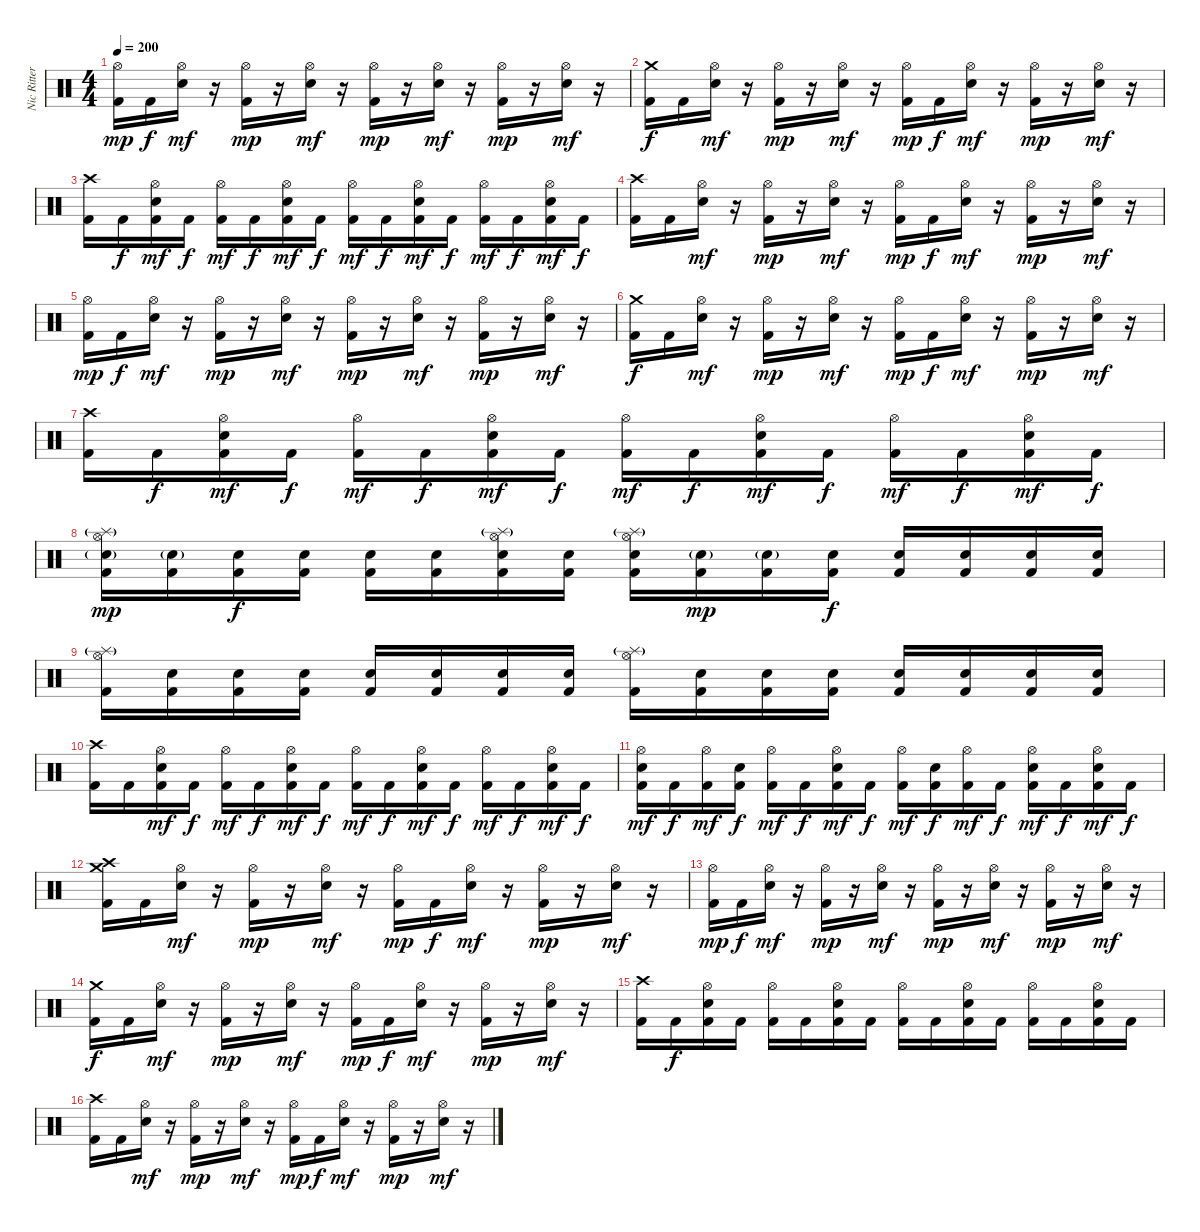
\track ("Nic Ritter" "Nic Ritter") {instrument percussion}
\staff {score}
\articulation defaults
\ts (4 4)
\tempo 200
\clef neutral
\ks c
("Hi-Hat (open)" "Kick (hit) 2").16{dy mp} "Kick (hit) 2".16{dy f} ("Hi-Hat (open)" "Electric Snare (hit)").16{dy mf} r.16 ("Hi-Hat (open)" "Kick (hit) 2").16{dy mp} r.16 ("Hi-Hat (open)" "Electric Snare (hit)").16{dy mf} r.16 ("Hi-Hat (open)" "Kick (hit) 2").16{dy mp} r.16 ("Hi-Hat (open)" "Electric Snare (hit)").16{dy mf} r.16 ("Hi-Hat (open)" "Kick (hit) 2").16{dy mp} r.16 ("Hi-Hat (open)" "Electric Snare (hit)").16{dy mf} r.16 |
("Crash medium (hit)" "Kick (hit) 2").16{dy f} "Kick (hit) 2".16 ("Hi-Hat (open)" "Electric Snare (hit)").16{dy mf} r.16 ("Hi-Hat (open)" "Kick (hit) 2").16{dy mp} r.16 ("Hi-Hat (open)" "Electric Snare (hit)").16{dy mf} r.16 ("Hi-Hat (open)" "Kick (hit) 2").16{dy mp} "Kick (hit) 2".16{dy f} ("Hi-Hat (open)" "Electric Snare (hit)").16{dy mf} r.16 ("Hi-Hat (open)" "Kick (hit) 2").16{dy mp} r.16 ("Hi-Hat (open)" "Electric Snare (hit)").16{dy mf} r.16 |
("Crash high (hit)" "Kick (hit) 2").16 "Kick (hit) 2".16{dy f} ("Hi-Hat (open)" "Electric Snare (hit)" "Kick (hit) 2").16{dy mf} "Kick (hit) 2".16{dy f} ("Hi-Hat (open)" "Kick (hit) 2").16{dy mf} "Kick (hit) 2".16{dy f} ("Hi-Hat (open)" "Electric Snare (hit)" "Kick (hit) 2").16{dy mf} "Kick (hit) 2".16{dy f} ("Hi-Hat (open)" "Kick (hit) 2").16{dy mf} "Kick (hit) 2".16{dy f} ("Hi-Hat (open)" "Electric Snare (hit)" "Kick (hit) 2").16{dy mf} "Kick (hit) 2".16{dy f} ("Hi-Hat (open)" "Kick (hit) 2").16{dy mf} "Kick (hit) 2".16{dy f} ("Hi-Hat (open)" "Electric Snare (hit)" "Kick (hit) 2").16{dy mf} "Kick (hit) 2".16{dy f} |
("Crash high (hit)" "Kick (hit) 2").16 "Kick (hit) 2".16 ("Hi-Hat (open)" "Electric Snare (hit)").16{dy mf} r.16 ("Hi-Hat (open)" "Kick (hit) 2").16{dy mp} r.16 ("Hi-Hat (open)" "Electric Snare (hit)").16{dy mf} r.16 ("Hi-Hat (open)" "Kick (hit) 2").16{dy mp} "Kick (hit) 2".16{dy f} ("Hi-Hat (open)" "Electric Snare (hit)").16{dy mf} r.16 ("Hi-Hat (open)" "Kick (hit) 2").16{dy mp} r.16 ("Hi-Hat (open)" "Electric Snare (hit)").16{dy mf} r.16 |
("Hi-Hat (open)" "Kick (hit) 2").16{dy mp} "Kick (hit) 2".16{dy f} ("Hi-Hat (open)" "Electric Snare (hit)").16{dy mf} r.16 ("Hi-Hat (open)" "Kick (hit) 2").16{dy mp} r.16 ("Hi-Hat (open)" "Electric Snare (hit)").16{dy mf} r.16 ("Hi-Hat (open)" "Kick (hit) 2").16{dy mp} r.16 ("Hi-Hat (open)" "Electric Snare (hit)").16{dy mf} r.16 ("Hi-Hat (open)" "Kick (hit) 2").16{dy mp} r.16 ("Hi-Hat (open)" "Electric Snare (hit)").16{dy mf} r.16 |
("Crash medium (hit)" "Kick (hit) 2").16{dy f} "Kick (hit) 2".16 ("Hi-Hat (open)" "Electric Snare (hit)").16{dy mf} r.16 ("Hi-Hat (open)" "Kick (hit) 2").16{dy mp} r.16 ("Hi-Hat (open)" "Electric Snare (hit)").16{dy mf} r.16 ("Hi-Hat (open)" "Kick (hit) 2").16{dy mp} "Kick (hit) 2".16{dy f} ("Hi-Hat (open)" "Electric Snare (hit)").16{dy mf} r.16 ("Hi-Hat (open)" "Kick (hit) 2").16{dy mp} r.16 ("Hi-Hat (open)" "Electric Snare (hit)").16{dy mf} r.16 |
("Crash high (hit)" "Kick (hit) 2").16 "Kick (hit) 2".16{dy f} ("Hi-Hat (open)" "Electric Snare (hit)" "Kick (hit) 2").16{dy mf} "Kick (hit) 2".16{dy f} ("Hi-Hat (open)" "Kick (hit) 2").16{dy mf} "Kick (hit) 2".16{dy f} ("Hi-Hat (open)" "Electric Snare (hit)" "Kick (hit) 2").16{dy mf} "Kick (hit) 2".16{dy f} ("Hi-Hat (open)" "Kick (hit) 2").16{dy mf} "Kick (hit) 2".16{dy f} ("Hi-Hat (open)" "Electric Snare (hit)" "Kick (hit) 2").16{dy mf} "Kick (hit) 2".16{dy f} ("Hi-Hat (open)" "Kick (hit) 2").16{dy mf} "Kick (hit) 2".16{dy f} ("Hi-Hat (open)" "Electric Snare (hit)" "Kick (hit) 2").16{dy mf} "Kick (hit) 2".16{dy f} |
("Splash (hit)"{g} "Hi-Hat (open)" "Electric Snare (hit)"{g} "Kick (hit) 2").16{dy mp} ("Electric Snare (hit)"{g} "Kick (hit) 2").16 ("Electric Snare (hit)" "Kick (hit) 2").16{dy f} ("Electric Snare (hit)" "Kick (hit) 2").16 ("Electric Snare (hit)" "Kick (hit) 2").16 ("Electric Snare (hit)" "Kick (hit) 2").16 ("Splash (hit)"{g} "Hi-Hat (open)" "Electric Snare (hit)" "Kick (hit) 2").16 ("Electric Snare (hit)" "Kick (hit) 2").16 ("Splash (hit)"{g} "Hi-Hat (open)" "Electric Snare (hit)" "Kick (hit) 2").16 ("Electric Snare (hit)"{g} "Kick (hit) 2").16{dy mp} ("Electric Snare (hit)"{g} "Kick (hit) 2").16 ("Electric Snare (hit)" "Kick (hit) 2").16{dy f} ("Electric Snare (hit)" "Kick (hit) 2").16 ("Electric Snare (hit)" "Kick (hit) 2").16 ("Electric Snare (hit)" "Kick (hit) 2").16 ("Electric Snare (hit)" "Kick (hit) 2").16 |
("Splash (hit)"{g} "Hi-Hat (open)" "Kick (hit) 2").16 ("Electric Snare (hit)" "Kick (hit) 2").16 ("Electric Snare (hit)" "Kick (hit) 2").16 ("Electric Snare (hit)" "Kick (hit) 2").16 ("Electric Snare (hit)" "Kick (hit) 2").16 ("Electric Snare (hit)" "Kick (hit) 2").16 ("Electric Snare (hit)" "Kick (hit) 2").16 ("Electric Snare (hit)" "Kick (hit) 2").16 ("Splash (hit)"{g} "Hi-Hat (open)" "Kick (hit) 2").16 ("Electric Snare (hit)" "Kick (hit) 2").16 ("Electric Snare (hit)" "Kick (hit) 2").16 ("Electric Snare (hit)" "Kick (hit) 2").16 ("Electric Snare (hit)" "Kick (hit) 2").16 ("Electric Snare (hit)" "Kick (hit) 2").16 ("Electric Snare (hit)" "Kick (hit) 2").16 ("Electric Snare (hit)" "Kick (hit) 2").16 |
("Crash high (hit)" "Kick (hit) 2").16 "Kick (hit) 2".16 ("Hi-Hat (open)" "Electric Snare (hit)" "Kick (hit) 2").16{dy mf} "Kick (hit) 2".16{dy f} ("Hi-Hat (open)" "Kick (hit) 2").16{dy mf} "Kick (hit) 2".16{dy f} ("Hi-Hat (open)" "Electric Snare (hit)" "Kick (hit) 2").16{dy mf} "Kick (hit) 2".16{dy f} ("Hi-Hat (open)" "Kick (hit) 2").16{dy mf} "Kick (hit) 2".16{dy f} ("Hi-Hat (open)" "Electric Snare (hit)" "Kick (hit) 2").16{dy mf} "Kick (hit) 2".16{dy f} ("Hi-Hat (open)" "Kick (hit) 2").16{dy mf} "Kick (hit) 2".16{dy f} ("Hi-Hat (open)" "Electric Snare (hit)" "Kick (hit) 2").16{dy mf} "Kick (hit) 2".16{dy f} |
("Hi-Hat (open)" "Electric Snare (hit)" "Kick (hit) 2").16{dy mf} "Kick (hit) 2".16{dy f} ("Hi-Hat (open)" "Kick (hit) 2").16{dy mf} ("Electric Snare (hit)" "Kick (hit) 2").16{dy f} ("Hi-Hat (open)" "Kick (hit) 2").16{dy mf} "Kick (hit) 2".16{dy f} ("Hi-Hat (open)" "Electric Snare (hit)" "Kick (hit) 2").16{dy mf} "Kick (hit) 2".16{dy f} ("Hi-Hat (open)" "Kick (hit) 2").16{dy mf} ("Electric Snare (hit)" "Kick (hit) 2").16{dy f} ("Hi-Hat (open)" "Kick (hit) 2").16{dy mf} "Kick (hit) 2".16{dy f} ("Hi-Hat (open)" "Electric Snare (hit)" "Kick (hit) 2").16{dy mf} "Kick (hit) 2".16{dy f} ("Hi-Hat (open)" "Electric Snare (hit)" "Kick (hit) 2").16{dy mf} "Kick (hit) 2".16{dy f} |
("Crash medium (hit)" "Crash high (hit)" "Kick (hit) 2").16 "Kick (hit) 2".16 ("Hi-Hat (open)" "Electric Snare (hit)").16{dy mf} r.16 ("Hi-Hat (open)" "Kick (hit) 2").16{dy mp} r.16 ("Hi-Hat (open)" "Electric Snare (hit)").16{dy mf} r.16 ("Hi-Hat (open)" "Kick (hit) 2").16{dy mp} "Kick (hit) 2".16{dy f} ("Hi-Hat (open)" "Electric Snare (hit)").16{dy mf} r.16 ("Hi-Hat (open)" "Kick (hit) 2").16{dy mp} r.16 ("Hi-Hat (open)" "Electric Snare (hit)").16{dy mf} r.16 |
("Hi-Hat (open)" "Kick (hit) 2").16{dy mp} "Kick (hit) 2".16{dy f} ("Hi-Hat (open)" "Electric Snare (hit)").16{dy mf} r.16 ("Hi-Hat (open)" "Kick (hit) 2").16{dy mp} r.16 ("Hi-Hat (open)" "Electric Snare (hit)").16{dy mf} r.16 ("Hi-Hat (open)" "Kick (hit) 2").16{dy mp} r.16 ("Hi-Hat (open)" "Electric Snare (hit)").16{dy mf} r.16 ("Hi-Hat (open)" "Kick (hit) 2").16{dy mp} r.16 ("Hi-Hat (open)" "Electric Snare (hit)").16{dy mf} r.16 |
("Crash medium (hit)" "Kick (hit) 2").16{dy f} "Kick (hit) 2".16 ("Hi-Hat (open)" "Electric Snare (hit)").16{dy mf} r.16 ("Hi-Hat (open)" "Kick (hit) 2").16{dy mp} r.16 ("Hi-Hat (open)" "Electric Snare (hit)").16{dy mf} r.16 ("Hi-Hat (open)" "Kick (hit) 2").16{dy mp} "Kick (hit) 2".16{dy f} ("Hi-Hat (open)" "Electric Snare (hit)").16{dy mf} r.16 ("Hi-Hat (open)" "Kick (hit) 2").16{dy mp} r.16 ("Hi-Hat (open)" "Electric Snare (hit)").16{dy mf} r.16 |
("Crash high (hit)" "Kick (hit) 2").16 "Kick (hit) 2".16{dy f} ("Hi-Hat (open)" "Electric Snare (hit)" "Kick (hit) 2").16 "Kick (hit) 2".16 ("Hi-Hat (open)" "Kick (hit) 2").16 "Kick (hit) 2".16 ("Hi-Hat (open)" "Electric Snare (hit)" "Kick (hit) 2").16 "Kick (hit) 2".16 ("Hi-Hat (open)" "Kick (hit) 2").16 "Kick (hit) 2".16 ("Hi-Hat (open)" "Electric Snare (hit)" "Kick (hit) 2").16 "Kick (hit) 2".16 ("Hi-Hat (open)" "Kick (hit) 2").16 "Kick (hit) 2".16 ("Hi-Hat (open)" "Electric Snare (hit)" "Kick (hit) 2").16 "Kick (hit) 2".16 |
("Crash high (hit)" "Kick (hit) 2").16 "Kick (hit) 2".16 ("Hi-Hat (open)" "Electric Snare (hit)").16{dy mf} r.16 ("Hi-Hat (open)" "Kick (hit) 2").16{dy mp} r.16 ("Hi-Hat (open)" "Electric Snare (hit)").16{dy mf} r.16 ("Hi-Hat (open)" "Kick (hit) 2").16{dy mp} "Kick (hit) 2".16{dy f} ("Hi-Hat (open)" "Electric Snare (hit)").16{dy mf} r.16 ("Hi-Hat (open)" "Kick (hit) 2").16{dy mp} r.16 ("Hi-Hat (open)" "Electric Snare (hit)").16{dy mf} r.16
